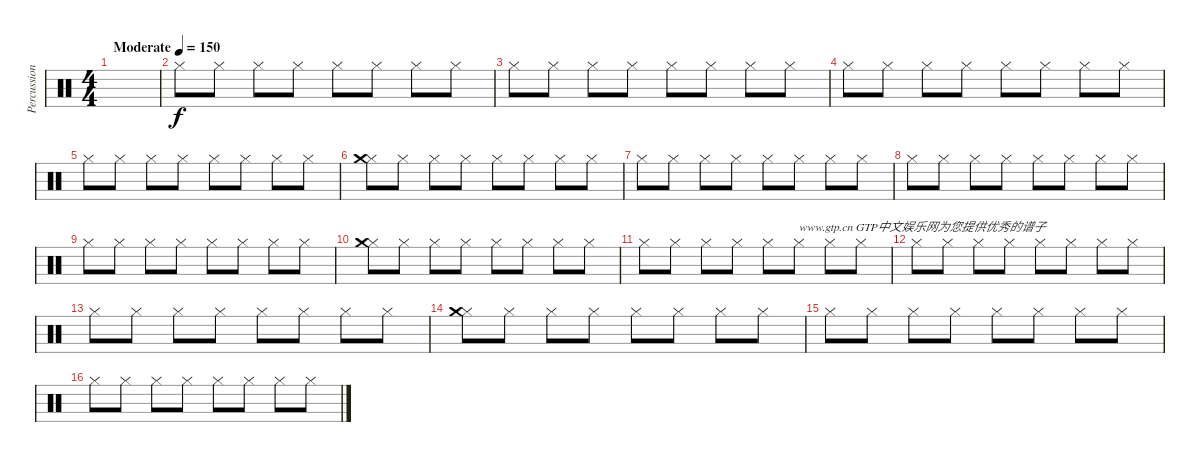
\track ("Percussion" "Percussion") {instrument percussion}
\staff {score}
\articulation defaults
\ts (4 4)
\tempo (150 "Moderate")
\clef neutral
\ks c
|
"Hi-Hat (closed)".8 "Hi-Hat (closed)".8 "Hi-Hat (closed)".8 "Hi-Hat (closed)".8 "Hi-Hat (closed)".8 "Hi-Hat (closed)".8 "Hi-Hat (closed)".8 "Hi-Hat (closed)".8 |
"Hi-Hat (closed)".8 "Hi-Hat (closed)".8 "Hi-Hat (closed)".8 "Hi-Hat (closed)".8 "Hi-Hat (closed)".8 "Hi-Hat (closed)".8 "Hi-Hat (closed)".8 "Hi-Hat (closed)".8 |
"Hi-Hat (closed)".8 "Hi-Hat (closed)".8 "Hi-Hat (closed)".8 "Hi-Hat (closed)".8 "Hi-Hat (closed)".8 "Hi-Hat (closed)".8 "Hi-Hat (closed)".8 "Hi-Hat (closed)".8 |
"Hi-Hat (closed)".8 "Hi-Hat (closed)".8 "Hi-Hat (closed)".8 "Hi-Hat (closed)".8 "Hi-Hat (closed)".8 "Hi-Hat (closed)".8 "Hi-Hat (closed)".8 "Hi-Hat (closed)".8 |
("Hi-Hat (closed)" "Crash medium (hit)").8 "Hi-Hat (closed)".8 "Hi-Hat (closed)".8 "Hi-Hat (closed)".8 "Hi-Hat (closed)".8 "Hi-Hat (closed)".8 "Hi-Hat (closed)".8 "Hi-Hat (closed)".8 |
"Hi-Hat (closed)".8 "Hi-Hat (closed)".8 "Hi-Hat (closed)".8 "Hi-Hat (closed)".8 "Hi-Hat (closed)".8 "Hi-Hat (closed)".8 "Hi-Hat (closed)".8 "Hi-Hat (closed)".8 |
"Hi-Hat (closed)".8 "Hi-Hat (closed)".8 "Hi-Hat (closed)".8 "Hi-Hat (closed)".8 "Hi-Hat (closed)".8 "Hi-Hat (closed)".8 "Hi-Hat (closed)".8 "Hi-Hat (closed)".8 |
"Hi-Hat (closed)".8 "Hi-Hat (closed)".8 "Hi-Hat (closed)".8 "Hi-Hat (closed)".8 "Hi-Hat (closed)".8 "Hi-Hat (closed)".8 "Hi-Hat (closed)".8 "Hi-Hat (closed)".8 |
("Hi-Hat (closed)" "Crash medium (hit)").8 "Hi-Hat (closed)".8 "Hi-Hat (closed)".8 "Hi-Hat (closed)".8 "Hi-Hat (closed)".8 "Hi-Hat (closed)".8 "Hi-Hat (closed)".8 "Hi-Hat (closed)".8 |
"Hi-Hat (closed)".8 "Hi-Hat (closed)".8 "Hi-Hat (closed)".8 "Hi-Hat (closed)".8 "Hi-Hat (closed)".8 "Hi-Hat (closed)".8{txt "www.gtp.cn GTP中文娱乐网为您提供优秀的谱子"} "Hi-Hat (closed)".8 "Hi-Hat (closed)".8 |
"Hi-Hat (closed)".8 "Hi-Hat (closed)".8 "Hi-Hat (closed)".8 "Hi-Hat (closed)".8 "Hi-Hat (closed)".8 "Hi-Hat (closed)".8 "Hi-Hat (closed)".8 "Hi-Hat (closed)".8 |
"Hi-Hat (closed)".8 "Hi-Hat (closed)".8 "Hi-Hat (closed)".8 "Hi-Hat (closed)".8 "Hi-Hat (closed)".8 "Hi-Hat (closed)".8 "Hi-Hat (closed)".8 "Hi-Hat (closed)".8 |
("Hi-Hat (closed)" "Crash medium (hit)").8 "Hi-Hat (closed)".8 "Hi-Hat (closed)".8 "Hi-Hat (closed)".8 "Hi-Hat (closed)".8 "Hi-Hat (closed)".8 "Hi-Hat (closed)".8 "Hi-Hat (closed)".8 |
"Hi-Hat (closed)".8 "Hi-Hat (closed)".8 "Hi-Hat (closed)".8 "Hi-Hat (closed)".8 "Hi-Hat (closed)".8 "Hi-Hat (closed)".8 "Hi-Hat (closed)".8 "Hi-Hat (closed)".8 |
"Hi-Hat (closed)".8 "Hi-Hat (closed)".8 "Hi-Hat (closed)".8 "Hi-Hat (closed)".8 "Hi-Hat (closed)".8 "Hi-Hat (closed)".8 "Hi-Hat (closed)".8 "Hi-Hat (closed)".8
